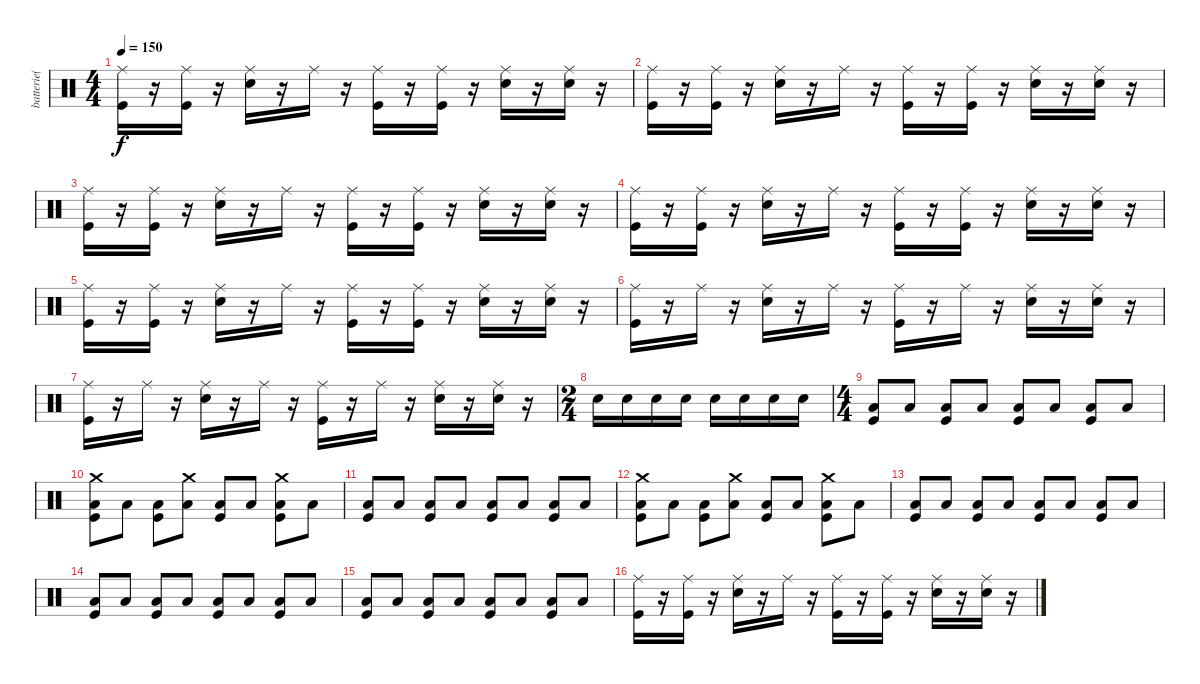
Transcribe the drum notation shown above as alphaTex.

\track ("batterie(  Mark Cain )" "batterie( ") {instrument percussion}
\staff {score}
\articulation defaults
\ts (4 4)
\tempo 150
\clef neutral
\ks c
("Ride (middle)" "Kick (hit)").16{dy f} r.16 ("Ride (middle)" "Kick (hit)").16 r.16 ("Ride (middle)" "Snare (hit) 2").16 r.16 "Ride (middle)".16 r.16 ("Ride (middle)" "Kick (hit)").16 r.16 ("Ride (middle)" "Kick (hit)").16 r.16 ("Ride (middle)" "Snare (hit) 2").16 r.16 ("Ride (middle)" "Snare (hit) 2").16 r.16 |
("Ride (middle)" "Kick (hit)").16 r.16 ("Ride (middle)" "Kick (hit)").16 r.16 ("Ride (middle)" "Snare (hit) 2").16 r.16 "Ride (middle)".16 r.16 ("Ride (middle)" "Kick (hit)").16 r.16 ("Ride (middle)" "Kick (hit)").16 r.16 ("Ride (middle)" "Snare (hit) 2").16 r.16 ("Ride (middle)" "Snare (hit) 2").16 r.16 |
("Ride (middle)" "Kick (hit)").16 r.16 ("Ride (middle)" "Kick (hit)").16 r.16 ("Ride (middle)" "Snare (hit) 2").16 r.16 "Ride (middle)".16 r.16 ("Ride (middle)" "Kick (hit)").16 r.16 ("Ride (middle)" "Kick (hit)").16 r.16 ("Ride (middle)" "Snare (hit) 2").16 r.16 ("Ride (middle)" "Snare (hit) 2").16 r.16 |
("Ride (middle)" "Kick (hit)").16 r.16 ("Ride (middle)" "Kick (hit)").16 r.16 ("Ride (middle)" "Snare (hit) 2").16 r.16 "Ride (middle)".16 r.16 ("Ride (middle)" "Kick (hit)").16 r.16 ("Ride (middle)" "Kick (hit)").16 r.16 ("Ride (middle)" "Snare (hit) 2").16 r.16 ("Ride (middle)" "Snare (hit) 2").16 r.16 |
("Ride (middle)" "Kick (hit)").16 r.16 ("Ride (middle)" "Kick (hit)").16 r.16 ("Ride (middle)" "Snare (hit) 2").16 r.16 "Ride (middle)".16 r.16 ("Ride (middle)" "Kick (hit)").16 r.16 ("Ride (middle)" "Kick (hit)").16 r.16 ("Ride (middle)" "Snare (hit) 2").16 r.16 ("Ride (middle)" "Snare (hit) 2").16 r.16 |
("Ride (middle)" "Kick (hit)").16 r.16 "Ride (middle)".16 r.16 ("Ride (middle)" "Snare (hit) 2").16 r.16 "Ride (middle)".16 r.16 ("Ride (middle)" "Kick (hit)").16 r.16 "Ride (middle)".16 r.16 ("Ride (middle)" "Snare (hit) 2").16 r.16 ("Ride (middle)" "Snare (hit) 2").16 r.16 |
("Ride (middle)" "Kick (hit)").16 r.16 "Ride (middle)".16 r.16 ("Ride (middle)" "Snare (hit) 2").16 r.16 "Ride (middle)".16 r.16 ("Ride (middle)" "Kick (hit)").16 r.16 "Ride (middle)".16 r.16 ("Ride (middle)" "Snare (hit) 2").16 r.16 ("Ride (middle)" "Snare (hit) 2").16 r.16 |
\ts (2 4)
"Snare (hit) 2".16 "Snare (hit) 2".16 "Snare (hit) 2".16 "Snare (hit) 2".16 "Snare (hit) 2".16 "Snare (hit) 2".16 "Snare (hit) 2".16 "Snare (hit) 2".16 |
\ts (4 4)
("Low Floor Tom (hit)" "Kick (hit)").8 "Low Floor Tom (hit)".8 ("Low Floor Tom (hit)" "Kick (hit)").8 "Low Floor Tom (hit)".8 ("Low Floor Tom (hit)" "Kick (hit)").8 "Low Floor Tom (hit)".8 ("Low Floor Tom (hit)" "Kick (hit)").8 "Low Floor Tom (hit)".8 |
("Crash medium (hit)" "Low Floor Tom (hit)" "Kick (hit)").8 "Low Floor Tom (hit)".8 ("Low Floor Tom (hit)" "Kick (hit)").8 ("Crash medium (hit)" "Low Floor Tom (hit)").8 ("Low Floor Tom (hit)" "Kick (hit)").8 "Low Floor Tom (hit)".8 ("Crash medium (hit)" "Low Floor Tom (hit)" "Kick (hit)").8 "Low Floor Tom (hit)".8 |
("Low Floor Tom (hit)" "Kick (hit)").8 "Low Floor Tom (hit)".8 ("Low Floor Tom (hit)" "Kick (hit)").8 "Low Floor Tom (hit)".8 ("Low Floor Tom (hit)" "Kick (hit)").8 "Low Floor Tom (hit)".8 ("Low Floor Tom (hit)" "Kick (hit)").8 "Low Floor Tom (hit)".8 |
("Crash medium (hit)" "Low Floor Tom (hit)" "Kick (hit)").8 "Low Floor Tom (hit)".8 ("Low Floor Tom (hit)" "Kick (hit)").8 ("Crash medium (hit)" "Low Floor Tom (hit)").8 ("Low Floor Tom (hit)" "Kick (hit)").8 "Low Floor Tom (hit)".8 ("Crash medium (hit)" "Low Floor Tom (hit)" "Kick (hit)").8 "Low Floor Tom (hit)".8 |
("Low Floor Tom (hit)" "Kick (hit)").8 "Low Floor Tom (hit)".8 ("Low Floor Tom (hit)" "Kick (hit)").8 "Low Floor Tom (hit)".8 ("Low Floor Tom (hit)" "Kick (hit)").8 "Low Floor Tom (hit)".8 ("Low Floor Tom (hit)" "Kick (hit)").8 "Low Floor Tom (hit)".8 |
("Low Floor Tom (hit)" "Kick (hit)").8 "Low Floor Tom (hit)".8 ("Low Floor Tom (hit)" "Kick (hit)").8 "Low Floor Tom (hit)".8 ("Low Floor Tom (hit)" "Kick (hit)").8 "Low Floor Tom (hit)".8 ("Low Floor Tom (hit)" "Kick (hit)").8 "Low Floor Tom (hit)".8 |
("Low Floor Tom (hit)" "Kick (hit)").8 "Low Floor Tom (hit)".8 ("Low Floor Tom (hit)" "Kick (hit)").8 "Low Floor Tom (hit)".8 ("Low Floor Tom (hit)" "Kick (hit)").8 "Low Floor Tom (hit)".8 ("Low Floor Tom (hit)" "Kick (hit)").8 "Low Floor Tom (hit)".8 |
("Ride (middle)" "Kick (hit)").16 r.16 ("Ride (middle)" "Kick (hit)").16 r.16 ("Ride (middle)" "Snare (hit) 2").16 r.16 "Ride (middle)".16 r.16 ("Ride (middle)" "Kick (hit)").16 r.16 ("Ride (middle)" "Kick (hit)").16 r.16 ("Ride (middle)" "Snare (hit) 2").16 r.16 ("Ride (middle)" "Snare (hit) 2").16 r.16
